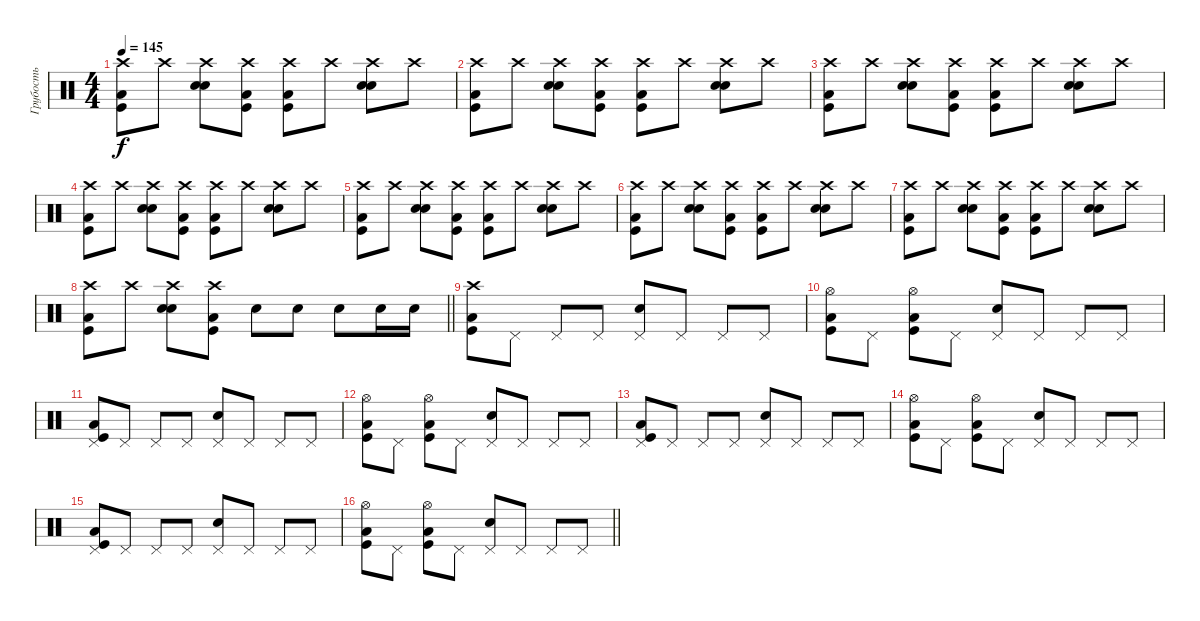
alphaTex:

\track ("Грубость" "Грубость") {instrument percussion}
\staff {score}
\articulation defaults
\ts (4 4)
\tempo 145
\clef neutral
\ks c
("Crash high (hit)" "Low Tom (hit)" "Kick (hit)").8{dy f} "Crash high (hit)".8 ("Crash high (hit)" "Electric Snare (hit)" "Snare (hit) 2").8 ("Crash high (hit)" "Low Tom (hit)" "Kick (hit)").8 ("Crash high (hit)" "Low Tom (hit)" "Kick (hit)").8 "Crash high (hit)".8 ("Crash high (hit)" "Electric Snare (hit)" "Snare (hit) 2").8 "Crash high (hit)".8 |
("Crash high (hit)" "Low Tom (hit)" "Kick (hit)").8 "Crash high (hit)".8 ("Crash high (hit)" "Electric Snare (hit)" "Snare (hit) 2").8 ("Crash high (hit)" "Low Tom (hit)" "Kick (hit)").8 ("Crash high (hit)" "Low Tom (hit)" "Kick (hit)").8 "Crash high (hit)".8 ("Crash high (hit)" "Electric Snare (hit)" "Snare (hit) 2").8 "Crash high (hit)".8 |
("Crash high (hit)" "Low Tom (hit)" "Kick (hit)").8 "Crash high (hit)".8 ("Crash high (hit)" "Electric Snare (hit)" "Snare (hit) 2").8 ("Crash high (hit)" "Low Tom (hit)" "Kick (hit)").8 ("Crash high (hit)" "Low Tom (hit)" "Kick (hit)").8 "Crash high (hit)".8 ("Crash high (hit)" "Electric Snare (hit)" "Snare (hit) 2").8 "Crash high (hit)".8 |
("Crash high (hit)" "Low Tom (hit)" "Kick (hit)").8 "Crash high (hit)".8 ("Crash high (hit)" "Electric Snare (hit)" "Snare (hit) 2").8 ("Crash high (hit)" "Low Tom (hit)" "Kick (hit)").8 ("Crash high (hit)" "Low Tom (hit)" "Kick (hit)").8 "Crash high (hit)".8 ("Crash high (hit)" "Electric Snare (hit)" "Snare (hit) 2").8 "Crash high (hit)".8 |
("Crash high (hit)" "Low Tom (hit)" "Kick (hit)").8 "Crash high (hit)".8 ("Crash high (hit)" "Electric Snare (hit)" "Snare (hit) 2").8 ("Crash high (hit)" "Low Tom (hit)" "Kick (hit)").8 ("Crash high (hit)" "Low Tom (hit)" "Kick (hit)").8 "Crash high (hit)".8 ("Crash high (hit)" "Electric Snare (hit)" "Snare (hit) 2").8 "Crash high (hit)".8 |
("Crash high (hit)" "Low Tom (hit)" "Kick (hit)").8 "Crash high (hit)".8 ("Crash high (hit)" "Electric Snare (hit)" "Snare (hit) 2").8 ("Crash high (hit)" "Low Tom (hit)" "Kick (hit)").8 ("Crash high (hit)" "Low Tom (hit)" "Kick (hit)").8 "Crash high (hit)".8 ("Crash high (hit)" "Electric Snare (hit)" "Snare (hit) 2").8 "Crash high (hit)".8 |
("Crash high (hit)" "Low Tom (hit)" "Kick (hit)").8 "Crash high (hit)".8 ("Crash high (hit)" "Electric Snare (hit)" "Snare (hit) 2").8 ("Crash high (hit)" "Low Tom (hit)" "Kick (hit)").8 ("Crash high (hit)" "Low Tom (hit)" "Kick (hit)").8 "Crash high (hit)".8 ("Crash high (hit)" "Electric Snare (hit)" "Snare (hit) 2").8 "Crash high (hit)".8 |
\barLineRight lightlight
("Crash high (hit)" "Low Tom (hit)" "Kick (hit)").8 "Crash high (hit)".8 ("Crash high (hit)" "Electric Snare (hit)" "Snare (hit) 2").8 ("Crash high (hit)" "Low Tom (hit)" "Kick (hit)").8 "Electric Snare (hit)".8 "Electric Snare (hit)".8 "Electric Snare (hit)".8 "Electric Snare (hit)".16 "Snare (hit) 2".16 |
("Crash high (hit)" "Low Tom (hit)" "Kick (hit)").8 "Pedal Hi-Hat (hit)".8 "Pedal Hi-Hat (hit)".8 "Pedal Hi-Hat (hit)".8 ("Pedal Hi-Hat (hit)" "Electric Snare (hit)").8 "Pedal Hi-Hat (hit)".8 "Pedal Hi-Hat (hit)".8 "Pedal Hi-Hat (hit)".8 |
("Hi-Hat (open)" "Low Tom (hit)" "Kick (hit)").8 "Pedal Hi-Hat (hit)".8 ("Hi-Hat (open)" "Low Tom (hit)" "Kick (hit)").8 "Pedal Hi-Hat (hit)".8 ("Pedal Hi-Hat (hit)" "Electric Snare (hit)").8 "Pedal Hi-Hat (hit)".8 "Pedal Hi-Hat (hit)".8 "Pedal Hi-Hat (hit)".8 |
("Pedal Hi-Hat (hit)" "Low Tom (hit)" "Kick (hit)").8 "Pedal Hi-Hat (hit)".8 "Pedal Hi-Hat (hit)".8 "Pedal Hi-Hat (hit)".8 ("Pedal Hi-Hat (hit)" "Electric Snare (hit)").8 "Pedal Hi-Hat (hit)".8 "Pedal Hi-Hat (hit)".8 "Pedal Hi-Hat (hit)".8 |
("Hi-Hat (open)" "Low Tom (hit)" "Kick (hit)").8 "Pedal Hi-Hat (hit)".8 ("Hi-Hat (open)" "Low Tom (hit)" "Kick (hit)").8 "Pedal Hi-Hat (hit)".8 ("Pedal Hi-Hat (hit)" "Electric Snare (hit)").8 "Pedal Hi-Hat (hit)".8 "Pedal Hi-Hat (hit)".8 "Pedal Hi-Hat (hit)".8 |
("Pedal Hi-Hat (hit)" "Low Tom (hit)" "Kick (hit)").8 "Pedal Hi-Hat (hit)".8 "Pedal Hi-Hat (hit)".8 "Pedal Hi-Hat (hit)".8 ("Pedal Hi-Hat (hit)" "Electric Snare (hit)").8 "Pedal Hi-Hat (hit)".8 "Pedal Hi-Hat (hit)".8 "Pedal Hi-Hat (hit)".8 |
("Hi-Hat (open)" "Low Tom (hit)" "Kick (hit)").8 "Pedal Hi-Hat (hit)".8 ("Hi-Hat (open)" "Low Tom (hit)" "Kick (hit)").8 "Pedal Hi-Hat (hit)".8 ("Pedal Hi-Hat (hit)" "Electric Snare (hit)").8 "Pedal Hi-Hat (hit)".8 "Pedal Hi-Hat (hit)".8 "Pedal Hi-Hat (hit)".8 |
("Pedal Hi-Hat (hit)" "Low Tom (hit)" "Kick (hit)").8 "Pedal Hi-Hat (hit)".8 "Pedal Hi-Hat (hit)".8 "Pedal Hi-Hat (hit)".8 ("Pedal Hi-Hat (hit)" "Electric Snare (hit)").8 "Pedal Hi-Hat (hit)".8 "Pedal Hi-Hat (hit)".8 "Pedal Hi-Hat (hit)".8 |
\barLineRight lightlight
("Hi-Hat (open)" "Low Tom (hit)" "Kick (hit)").8 "Pedal Hi-Hat (hit)".8 ("Hi-Hat (open)" "Low Tom (hit)" "Kick (hit)").8 "Pedal Hi-Hat (hit)".8 ("Pedal Hi-Hat (hit)" "Electric Snare (hit)").8 "Pedal Hi-Hat (hit)".8 "Pedal Hi-Hat (hit)".8 "Pedal Hi-Hat (hit)".8
